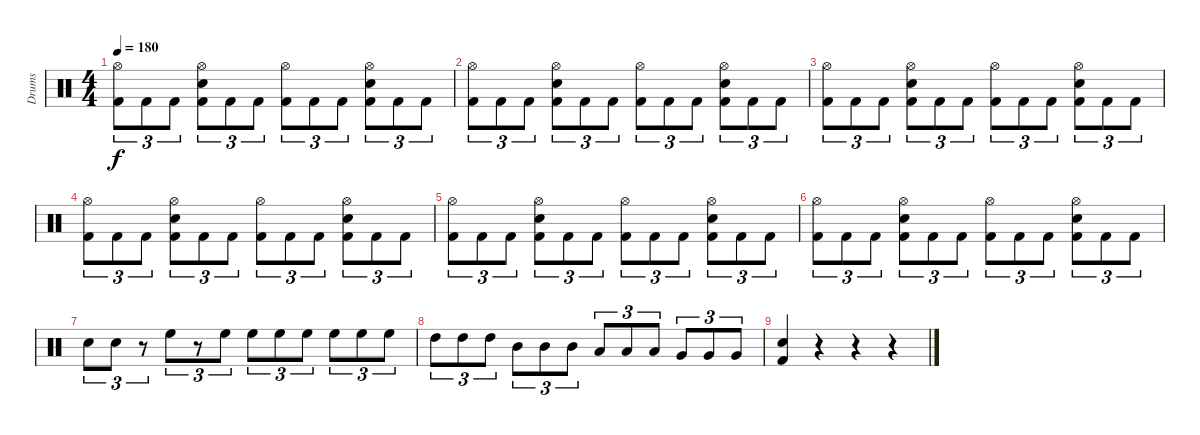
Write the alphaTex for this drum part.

\track ("Drums" "Drums") {instrument percussion}
\staff {score}
\articulation defaults
\ts (4 4)
\tempo 180
\clef neutral
\ks c
("Hi-Hat (open)" "Kick (hit) 2").8{tu (3 2) dy f} "Kick (hit) 2".8{tu (3 2)} "Kick (hit) 2".8{tu (3 2)} ("Hi-Hat (open)" "Electric Snare (hit)" "Kick (hit) 2").8{tu (3 2)} "Kick (hit) 2".8{tu (3 2)} "Kick (hit) 2".8{tu (3 2)} ("Hi-Hat (open)" "Kick (hit) 2").8{tu (3 2)} "Kick (hit) 2".8{tu (3 2)} "Kick (hit) 2".8{tu (3 2)} ("Hi-Hat (open)" "Electric Snare (hit)" "Kick (hit) 2").8{tu (3 2)} "Kick (hit) 2".8{tu (3 2)} "Kick (hit) 2".8{tu (3 2)} |
("Hi-Hat (open)" "Kick (hit) 2").8{tu (3 2)} "Kick (hit) 2".8{tu (3 2)} "Kick (hit) 2".8{tu (3 2)} ("Hi-Hat (open)" "Electric Snare (hit)" "Kick (hit) 2").8{tu (3 2)} "Kick (hit) 2".8{tu (3 2)} "Kick (hit) 2".8{tu (3 2)} ("Hi-Hat (open)" "Kick (hit) 2").8{tu (3 2)} "Kick (hit) 2".8{tu (3 2)} "Kick (hit) 2".8{tu (3 2)} ("Hi-Hat (open)" "Electric Snare (hit)" "Kick (hit) 2").8{tu (3 2)} "Kick (hit) 2".8{tu (3 2)} "Kick (hit) 2".8{tu (3 2)} |
("Hi-Hat (open)" "Kick (hit) 2").8{tu (3 2)} "Kick (hit) 2".8{tu (3 2)} "Kick (hit) 2".8{tu (3 2)} ("Hi-Hat (open)" "Electric Snare (hit)" "Kick (hit) 2").8{tu (3 2)} "Kick (hit) 2".8{tu (3 2)} "Kick (hit) 2".8{tu (3 2)} ("Hi-Hat (open)" "Kick (hit) 2").8{tu (3 2)} "Kick (hit) 2".8{tu (3 2)} "Kick (hit) 2".8{tu (3 2)} ("Hi-Hat (open)" "Electric Snare (hit)" "Kick (hit) 2").8{tu (3 2)} "Kick (hit) 2".8{tu (3 2)} "Kick (hit) 2".8{tu (3 2)} |
("Hi-Hat (open)" "Kick (hit) 2").8{tu (3 2)} "Kick (hit) 2".8{tu (3 2)} "Kick (hit) 2".8{tu (3 2)} ("Hi-Hat (open)" "Electric Snare (hit)" "Kick (hit) 2").8{tu (3 2)} "Kick (hit) 2".8{tu (3 2)} "Kick (hit) 2".8{tu (3 2)} ("Hi-Hat (open)" "Kick (hit) 2").8{tu (3 2)} "Kick (hit) 2".8{tu (3 2)} "Kick (hit) 2".8{tu (3 2)} ("Hi-Hat (open)" "Electric Snare (hit)" "Kick (hit) 2").8{tu (3 2)} "Kick (hit) 2".8{tu (3 2)} "Kick (hit) 2".8{tu (3 2)} |
("Hi-Hat (open)" "Kick (hit) 2").8{tu (3 2)} "Kick (hit) 2".8{tu (3 2)} "Kick (hit) 2".8{tu (3 2)} ("Hi-Hat (open)" "Electric Snare (hit)" "Kick (hit) 2").8{tu (3 2)} "Kick (hit) 2".8{tu (3 2)} "Kick (hit) 2".8{tu (3 2)} ("Hi-Hat (open)" "Kick (hit) 2").8{tu (3 2)} "Kick (hit) 2".8{tu (3 2)} "Kick (hit) 2".8{tu (3 2)} ("Hi-Hat (open)" "Electric Snare (hit)" "Kick (hit) 2").8{tu (3 2)} "Kick (hit) 2".8{tu (3 2)} "Kick (hit) 2".8{tu (3 2)} |
("Hi-Hat (open)" "Kick (hit) 2").8{tu (3 2)} "Kick (hit) 2".8{tu (3 2)} "Kick (hit) 2".8{tu (3 2)} ("Hi-Hat (open)" "Electric Snare (hit)" "Kick (hit) 2").8{tu (3 2)} "Kick (hit) 2".8{tu (3 2)} "Kick (hit) 2".8{tu (3 2)} ("Hi-Hat (open)" "Kick (hit) 2").8{tu (3 2)} "Kick (hit) 2".8{tu (3 2)} "Kick (hit) 2".8{tu (3 2)} ("Hi-Hat (open)" "Electric Snare (hit)" "Kick (hit) 2").8{tu (3 2)} "Kick (hit) 2".8{tu (3 2)} "Kick (hit) 2".8{tu (3 2)} |
"Electric Snare (hit)".8{tu (3 2)} "Electric Snare (hit)".8{tu (3 2)} r.8{tu (3 2)} "High Floor Tom (hit)".8{tu (3 2)} r.8{tu (3 2)} "High Floor Tom (hit)".8{tu (3 2)} "High Floor Tom (hit)".8{tu (3 2)} "High Floor Tom (hit)".8{tu (3 2)} "High Floor Tom (hit)".8{tu (3 2)} "High Floor Tom (hit)".8{tu (3 2)} "High Floor Tom (hit)".8{tu (3 2)} "High Floor Tom (hit)".8{tu (3 2)} |
"High Tom (hit)".8{tu (3 2)} "High Tom (hit)".8{tu (3 2)} "High Tom (hit)".8{tu (3 2)} "Mid Tom (hit)".8{tu (3 2)} "Mid Tom (hit)".8{tu (3 2)} "Mid Tom (hit)".8{tu (3 2)} "Low Tom (hit)".8{tu (3 2)} "Low Tom (hit)".8{tu (3 2)} "Low Tom (hit)".8{tu (3 2)} "Very Low Tom (hit)".8{tu (3 2)} "Very Low Tom (hit)".8{tu (3 2)} "Very Low Tom (hit)".8{tu (3 2)} |
("Electric Snare (hit)" "Kick (hit) 2").4 r.4 r.4 r.4
